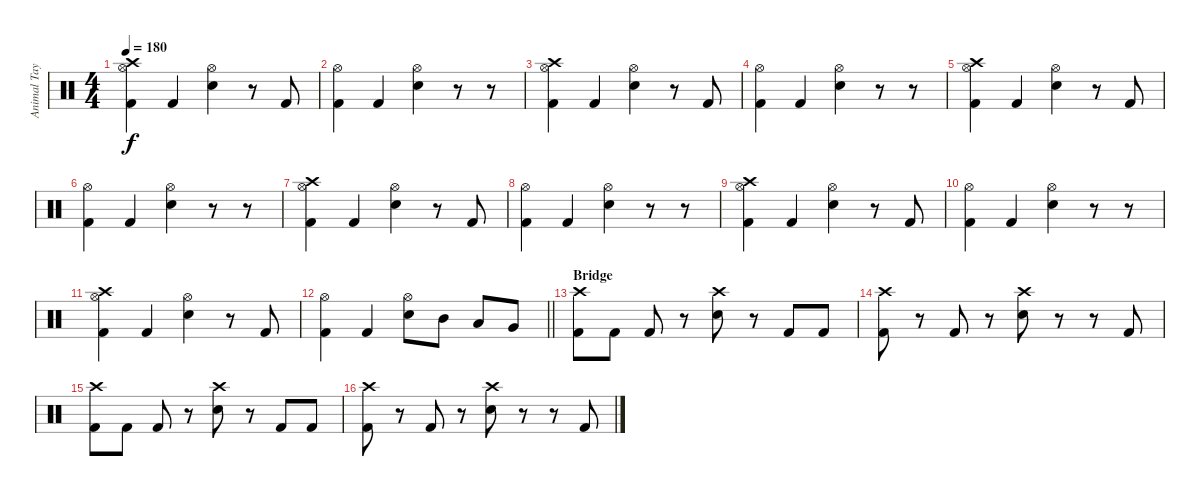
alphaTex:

\track ("Animal Taylor" "Animal Tay") {instrument percussion}
\staff {score}
\articulation defaults
\ts (4 4)
\tempo 180
\clef neutral
\ks c
("Hi-Hat (open)" "Crash high (hit)" "Kick (hit) 2").4{dy f} "Kick (hit) 2".4 ("Hi-Hat (open)" "Snare (hit) 2").4 r.8 "Kick (hit) 2".8 |
("Hi-Hat (open)" "Kick (hit) 2").4 "Kick (hit) 2".4 ("Hi-Hat (open)" "Snare (hit) 2").4 r.8 r.8 |
("Hi-Hat (open)" "Crash high (hit)" "Kick (hit) 2").4 "Kick (hit) 2".4 ("Hi-Hat (open)" "Snare (hit) 2").4 r.8 "Kick (hit) 2".8 |
("Hi-Hat (open)" "Kick (hit) 2").4 "Kick (hit) 2".4 ("Hi-Hat (open)" "Snare (hit) 2").4 r.8 r.8 |
("Hi-Hat (open)" "Crash high (hit)" "Kick (hit) 2").4 "Kick (hit) 2".4 ("Hi-Hat (open)" "Snare (hit) 2").4 r.8 "Kick (hit) 2".8 |
("Hi-Hat (open)" "Kick (hit) 2").4 "Kick (hit) 2".4 ("Hi-Hat (open)" "Snare (hit) 2").4 r.8 r.8 |
("Hi-Hat (open)" "Crash high (hit)" "Kick (hit) 2").4 "Kick (hit) 2".4 ("Hi-Hat (open)" "Snare (hit) 2").4 r.8 "Kick (hit) 2".8 |
("Hi-Hat (open)" "Kick (hit) 2").4 "Kick (hit) 2".4 ("Hi-Hat (open)" "Snare (hit) 2").4 r.8 r.8 |
("Hi-Hat (open)" "Crash high (hit)" "Kick (hit) 2").4 "Kick (hit) 2".4 ("Hi-Hat (open)" "Snare (hit) 2").4 r.8 "Kick (hit) 2".8 |
("Hi-Hat (open)" "Kick (hit) 2").4 "Kick (hit) 2".4 ("Hi-Hat (open)" "Snare (hit) 2").4 r.8 r.8 |
("Hi-Hat (open)" "Crash high (hit)" "Kick (hit) 2").4 "Kick (hit) 2".4 ("Hi-Hat (open)" "Snare (hit) 2").4 r.8 "Kick (hit) 2".8 |
\barLineRight lightlight
("Hi-Hat (open)" "Kick (hit) 2").4 "Kick (hit) 2".4 ("Hi-Hat (open)" "Snare (hit) 2").8 "Mid Tom (hit)".8 "Low Tom (hit)".8 "Very Low Tom (hit)".8 |
\section ("" "Bridge")
("Crash high (hit)" "Kick (hit) 2").8 "Kick (hit) 2".8 "Kick (hit) 2".8 r.8 ("Crash high (hit)" "Snare (hit) 2").8 r.8 "Kick (hit) 2".8 "Kick (hit) 2".8 |
("Crash high (hit)" "Kick (hit) 2").8 r.8 "Kick (hit) 2".8 r.8 ("Crash high (hit)" "Snare (hit) 2").8 r.8 r.8 "Kick (hit) 2".8 |
("Crash high (hit)" "Kick (hit) 2").8 "Kick (hit) 2".8 "Kick (hit) 2".8 r.8 ("Crash high (hit)" "Snare (hit) 2").8 r.8 "Kick (hit) 2".8 "Kick (hit) 2".8 |
("Crash high (hit)" "Kick (hit) 2").8 r.8 "Kick (hit) 2".8 r.8 ("Crash high (hit)" "Snare (hit) 2").8 r.8 r.8 "Kick (hit) 2".8
